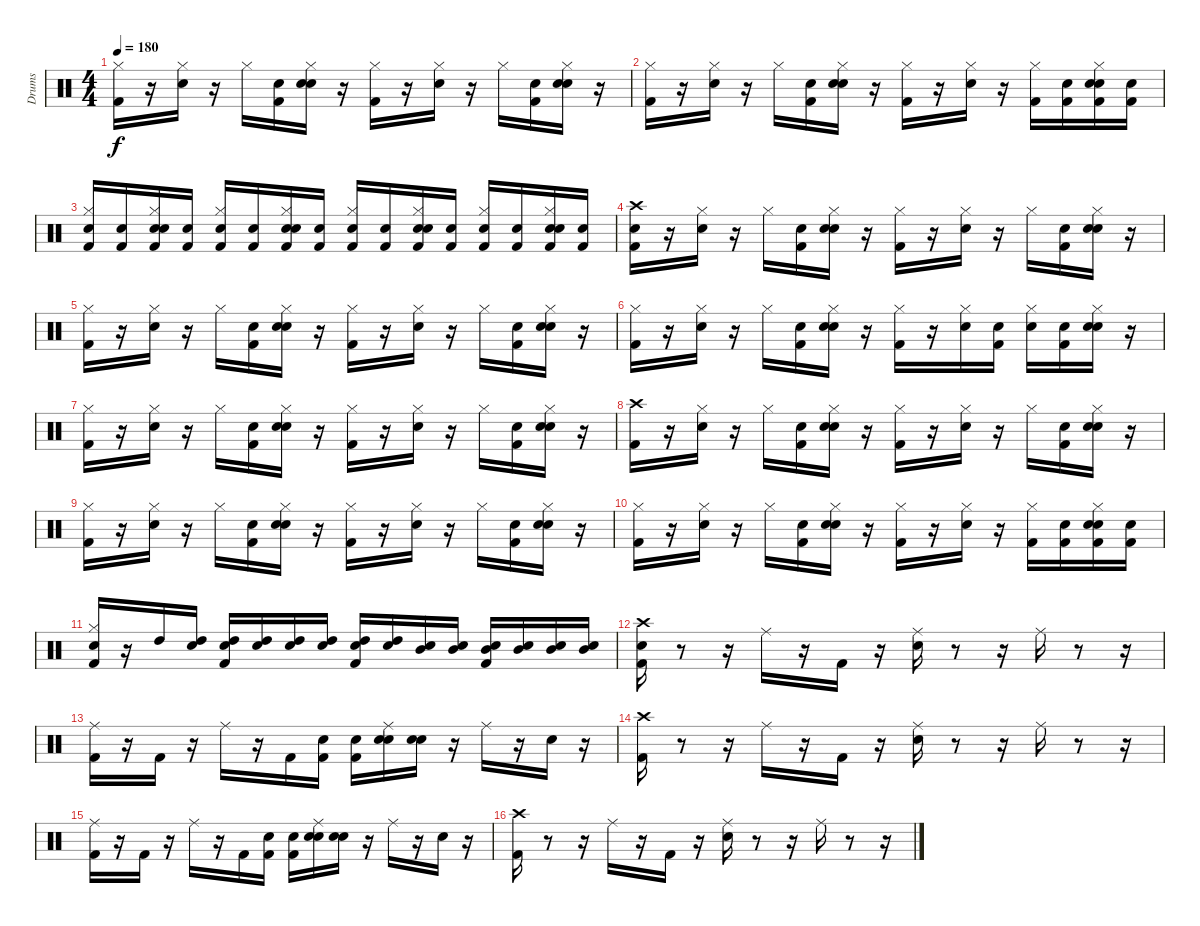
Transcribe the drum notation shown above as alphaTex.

\track ("Drums" "Drums") {instrument percussion}
\staff {score}
\articulation defaults
\ts (4 4)
\tempo 180
\clef neutral
\ks c
("Kick (hit) 2" "Hi-Hat (closed)").16{dy f} r.16 ("Snare (hit) 2" "Hi-Hat (closed)").16 r.16 "Hi-Hat (closed)".16 ("Snare (hit)" "Kick (hit) 2").16 ("Snare (hit)" "Snare (hit) 2" "Hi-Hat (closed)").16 r.16 ("Kick (hit) 2" "Hi-Hat (closed)").16 r.16 ("Snare (hit) 2" "Hi-Hat (closed)").16 r.16 "Hi-Hat (closed)".16 ("Snare (hit)" "Kick (hit) 2").16 ("Snare (hit)" "Snare (hit) 2" "Hi-Hat (closed)").16 r.16 |
("Kick (hit) 2" "Hi-Hat (closed)").16 r.16 ("Snare (hit) 2" "Hi-Hat (closed)").16 r.16 "Hi-Hat (closed)".16 ("Snare (hit)" "Kick (hit) 2").16 ("Snare (hit)" "Snare (hit) 2" "Hi-Hat (closed)").16 r.16 ("Kick (hit) 2" "Hi-Hat (closed)").16 r.16 ("Snare (hit) 2" "Hi-Hat (closed)").16 r.16 ("Kick (hit) 2" "Hi-Hat (closed)").16 ("Snare (hit)" "Kick (hit) 2").16 ("Snare (hit)" "Kick (hit) 2" "Snare (hit) 2" "Hi-Hat (closed)").16 ("Snare (hit)" "Kick (hit) 2").16 |
("Snare (hit)" "Kick (hit) 2" "Hi-Hat (closed)").16 ("Snare (hit)" "Kick (hit) 2").16 ("Snare (hit)" "Snare (hit) 2" "Kick (hit) 2" "Hi-Hat (closed)").16 ("Snare (hit)" "Kick (hit) 2").16 ("Snare (hit)" "Kick (hit) 2" "Hi-Hat (closed)").16 ("Snare (hit)" "Kick (hit) 2").16 ("Snare (hit)" "Snare (hit) 2" "Kick (hit) 2" "Hi-Hat (closed)").16 ("Snare (hit)" "Kick (hit) 2").16 ("Snare (hit)" "Kick (hit) 2" "Hi-Hat (closed)").16 ("Snare (hit)" "Kick (hit) 2").16 ("Snare (hit)" "Snare (hit) 2" "Kick (hit) 2" "Hi-Hat (closed)").16 ("Snare (hit)" "Kick (hit) 2").16 ("Snare (hit)" "Kick (hit) 2" "Hi-Hat (closed)").16 ("Snare (hit)" "Kick (hit) 2").16 ("Snare (hit)" "Snare (hit) 2" "Kick (hit) 2" "Hi-Hat (closed)").16 ("Snare (hit)" "Kick (hit) 2").16 |
("Snare (hit)" "Kick (hit) 2" "Crash high (hit)").16 r.16 ("Snare (hit) 2" "Hi-Hat (closed)").16 r.16 "Hi-Hat (closed)".16 ("Snare (hit)" "Kick (hit) 2").16 ("Snare (hit)" "Snare (hit) 2" "Hi-Hat (closed)").16 r.16 ("Kick (hit) 2" "Hi-Hat (closed)").16 r.16 ("Snare (hit) 2" "Hi-Hat (closed)").16 r.16 "Hi-Hat (closed)".16 ("Snare (hit)" "Kick (hit) 2").16 ("Snare (hit)" "Snare (hit) 2" "Hi-Hat (closed)").16 r.16 |
("Kick (hit) 2" "Hi-Hat (closed)").16 r.16 ("Snare (hit) 2" "Hi-Hat (closed)").16 r.16 "Hi-Hat (closed)".16 ("Snare (hit)" "Kick (hit) 2").16 ("Snare (hit)" "Snare (hit) 2" "Hi-Hat (closed)").16 r.16 ("Kick (hit) 2" "Hi-Hat (closed)").16 r.16 ("Snare (hit) 2" "Hi-Hat (closed)").16 r.16 "Hi-Hat (closed)".16 ("Snare (hit)" "Kick (hit) 2").16 ("Snare (hit)" "Snare (hit) 2" "Hi-Hat (closed)").16 r.16 |
("Kick (hit) 2" "Hi-Hat (closed)").16 r.16 ("Hi-Hat (closed)" "Snare (hit) 2").16 r.16 "Hi-Hat (closed)".16 ("Snare (hit)" "Kick (hit) 2").16 ("Snare (hit)" "Snare (hit) 2" "Hi-Hat (closed)").16 r.16 ("Kick (hit) 2" "Hi-Hat (closed)").16 r.16 ("Snare (hit) 2" "Hi-Hat (closed)").16 ("Snare (hit)" "Kick (hit) 2").16 ("Snare (hit)" "Hi-Hat (closed)").16 ("Snare (hit)" "Kick (hit) 2").16 ("Snare (hit)" "Snare (hit) 2" "Hi-Hat (closed)").16 r.16 |
("Kick (hit) 2" "Hi-Hat (closed)").16 r.16 ("Snare (hit) 2" "Hi-Hat (closed)").16 r.16 "Hi-Hat (closed)".16 ("Snare (hit)" "Kick (hit) 2").16 ("Snare (hit)" "Snare (hit) 2" "Hi-Hat (closed)").16 r.16 ("Kick (hit) 2" "Hi-Hat (closed)").16 r.16 ("Snare (hit) 2" "Hi-Hat (closed)").16 r.16 "Hi-Hat (closed)".16 ("Snare (hit)" "Kick (hit) 2").16 ("Snare (hit)" "Snare (hit) 2" "Hi-Hat (closed)").16 r.16 |
("Kick (hit) 2" "Crash high (hit)").16 r.16 ("Snare (hit) 2" "Hi-Hat (closed)").16 r.16 "Hi-Hat (closed)".16 ("Snare (hit)" "Kick (hit) 2").16 ("Snare (hit)" "Snare (hit) 2" "Hi-Hat (closed)").16 r.16 ("Kick (hit) 2" "Hi-Hat (closed)").16 r.16 ("Snare (hit) 2" "Hi-Hat (closed)").16 r.16 "Hi-Hat (closed)".16 ("Snare (hit)" "Kick (hit) 2").16 ("Snare (hit)" "Snare (hit) 2" "Hi-Hat (closed)").16 r.16 |
("Kick (hit) 2" "Hi-Hat (closed)").16 r.16 ("Snare (hit) 2" "Hi-Hat (closed)").16 r.16 "Hi-Hat (closed)".16 ("Snare (hit)" "Kick (hit) 2").16 ("Snare (hit)" "Snare (hit) 2" "Hi-Hat (closed)").16 r.16 ("Kick (hit) 2" "Hi-Hat (closed)").16 r.16 ("Snare (hit) 2" "Hi-Hat (closed)").16 r.16 "Hi-Hat (closed)".16 ("Snare (hit)" "Kick (hit) 2").16 ("Snare (hit)" "Snare (hit) 2" "Hi-Hat (closed)").16 r.16 |
("Kick (hit) 2" "Hi-Hat (closed)").16 r.16 ("Snare (hit) 2" "Hi-Hat (closed)").16 r.16 "Hi-Hat (closed)".16 ("Snare (hit)" "Kick (hit) 2").16 ("Snare (hit)" "Snare (hit) 2" "Hi-Hat (closed)").16 r.16 ("Kick (hit) 2" "Hi-Hat (closed)").16 r.16 ("Snare (hit) 2" "Hi-Hat (closed)").16 r.16 ("Kick (hit) 2" "Hi-Hat (closed)").16 ("Snare (hit)" "Kick (hit) 2").16 ("Snare (hit)" "Kick (hit) 2" "Snare (hit) 2" "Hi-Hat (closed)").16 ("Snare (hit)" "Kick (hit) 2").16 |
("Snare (hit)" "Hi-Hat (closed)" "Kick (hit) 2").16 r.16 "High Tom (hit)".16 ("Snare (hit)" "High Tom (hit)").16 ("Snare (hit)" "High Tom (hit)" "Kick (hit) 2").16 ("Snare (hit)" "High Tom (hit)").16 ("Snare (hit)" "High Tom (hit)").16 ("Snare (hit)" "High Tom (hit)").16 ("Snare (hit)" "High Tom (hit)" "Kick (hit) 2").16 ("Snare (hit)" "High Tom (hit)").16 ("Snare (hit)" "Mid Tom (hit)").16 ("Snare (hit)" "Mid Tom (hit)").16 ("Snare (hit)" "Mid Tom (hit)" "Kick (hit) 2").16 ("Snare (hit)" "Mid Tom (hit)").16 ("Snare (hit)" "Mid Tom (hit)").16 ("Snare (hit)" "Mid Tom (hit)").16 |
("Snare (hit)" "Crash high (hit)" "Kick (hit) 2").16 r.8 r.16 "Ride (middle)".16 r.16 "Kick (hit) 2".16 r.16 ("Snare (hit) 2" "Ride (middle)").16 r.8 r.16 "Ride (middle)".16 r.8 r.16 |
("Kick (hit) 2" "Ride (middle)").16 r.16 "Kick (hit) 2".16 r.16 "Ride (middle)".16 r.16 "Kick (hit) 2".16 ("Snare (hit)" "Kick (hit) 2").16 ("Snare (hit)" "Kick (hit) 2").16 ("Snare (hit)" "Ride (middle)" "Snare (hit) 2").16 ("Snare (hit)" "Snare (hit) 2").16 r.16 "Ride (middle)".16 r.16 "Snare (hit) 2".16 r.16 |
("Crash high (hit)" "Kick (hit) 2").16 r.8 r.16 "Ride (middle)".16 r.16 "Kick (hit) 2".16 r.16 ("Snare (hit) 2" "Ride (middle)").16 r.8 r.16 "Ride (middle)".16 r.8 r.16 |
("Kick (hit) 2" "Ride (middle)").16 r.16 "Kick (hit) 2".16 r.16 "Ride (middle)".16 r.16 "Kick (hit) 2".16 ("Snare (hit)" "Kick (hit) 2").16 ("Snare (hit)" "Kick (hit) 2").16 ("Snare (hit)" "Ride (middle)" "Snare (hit) 2").16 ("Snare (hit)" "Snare (hit) 2").16 r.16 "Ride (middle)".16 r.16 "Snare (hit) 2".16 r.16 |
("Crash high (hit)" "Kick (hit) 2").16 r.8 r.16 "Ride (middle)".16 r.16 "Kick (hit) 2".16 r.16 ("Snare (hit) 2" "Ride (middle)").16 r.8 r.16 "Ride (middle)".16 r.8 r.16
